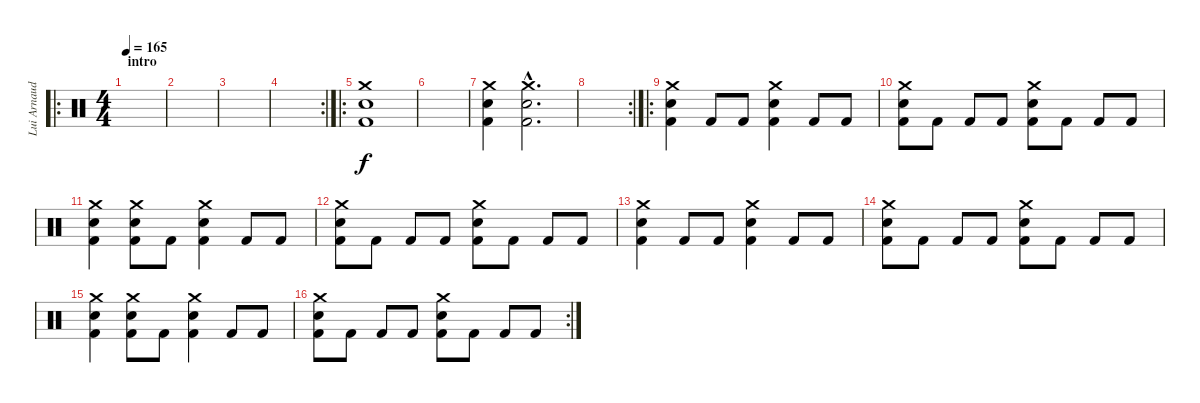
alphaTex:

\track ("Lui Arnaudin" "Lui Arnaud") {instrument percussion}
\staff {score}
\articulation defaults
\ro
\ts (4 4)
\section ("" "intro")
\tempo 165
\clef neutral
\ks c
|
|
|
\rc 2
|
\ro
("Crash medium (hit)" "Kick (hit) 2" "Electric Snare (hit)").1 |
|
("Kick (hit) 2" "Electric Snare (hit)" "Crash medium (hit)").4 ("Kick (hit) 2"{hac} "Electric Snare (hit)"{hac} "Crash medium (hit)"{hac}).2{d} |
\rc 2
|
\ro
("Kick (hit) 2" "Crash medium (hit)" "Electric Snare (hit)").4 "Kick (hit) 2".8 "Kick (hit) 2".8 ("Electric Snare (hit)" "Crash medium (hit)" "Kick (hit) 2").4 "Kick (hit) 2".8 "Kick (hit) 2".8 |
("Kick (hit) 2" "Crash medium (hit)" "Electric Snare (hit)").8 "Kick (hit) 2".8 "Kick (hit) 2".8 "Kick (hit) 2".8 ("Kick (hit) 2" "Crash medium (hit)" "Electric Snare (hit)").8 "Kick (hit) 2".8 "Kick (hit) 2".8 "Kick (hit) 2".8 |
("Kick (hit) 2" "Crash medium (hit)" "Electric Snare (hit)").4 ("Electric Snare (hit)" "Crash medium (hit)" "Kick (hit) 2").8 "Kick (hit) 2".8 ("Kick (hit) 2" "Crash medium (hit)" "Electric Snare (hit)").4 "Kick (hit) 2".8 "Kick (hit) 2".8 |
("Kick (hit) 2" "Crash medium (hit)" "Electric Snare (hit)").8 "Kick (hit) 2".8 "Kick (hit) 2".8 "Kick (hit) 2".8 ("Kick (hit) 2" "Crash medium (hit)" "Electric Snare (hit)").8 "Kick (hit) 2".8 "Kick (hit) 2".8 "Kick (hit) 2".8 |
("Kick (hit) 2" "Crash medium (hit)" "Electric Snare (hit)").4 "Kick (hit) 2".8 "Kick (hit) 2".8 ("Electric Snare (hit)" "Crash medium (hit)" "Kick (hit) 2").4 "Kick (hit) 2".8 "Kick (hit) 2".8 |
("Kick (hit) 2" "Crash medium (hit)" "Electric Snare (hit)").8 "Kick (hit) 2".8 "Kick (hit) 2".8 "Kick (hit) 2".8 ("Kick (hit) 2" "Crash medium (hit)" "Electric Snare (hit)").8 "Kick (hit) 2".8 "Kick (hit) 2".8 "Kick (hit) 2".8 |
("Kick (hit) 2" "Crash medium (hit)" "Electric Snare (hit)").4 ("Electric Snare (hit)" "Crash medium (hit)" "Kick (hit) 2").8 "Kick (hit) 2".8 ("Kick (hit) 2" "Crash medium (hit)" "Electric Snare (hit)").4 "Kick (hit) 2".8 "Kick (hit) 2".8 |
\rc 2
("Kick (hit) 2" "Crash medium (hit)" "Electric Snare (hit)").8 "Kick (hit) 2".8 "Kick (hit) 2".8 "Kick (hit) 2".8 ("Kick (hit) 2" "Crash medium (hit)" "Electric Snare (hit)").8 "Kick (hit) 2".8 "Kick (hit) 2".8 "Kick (hit) 2".8
